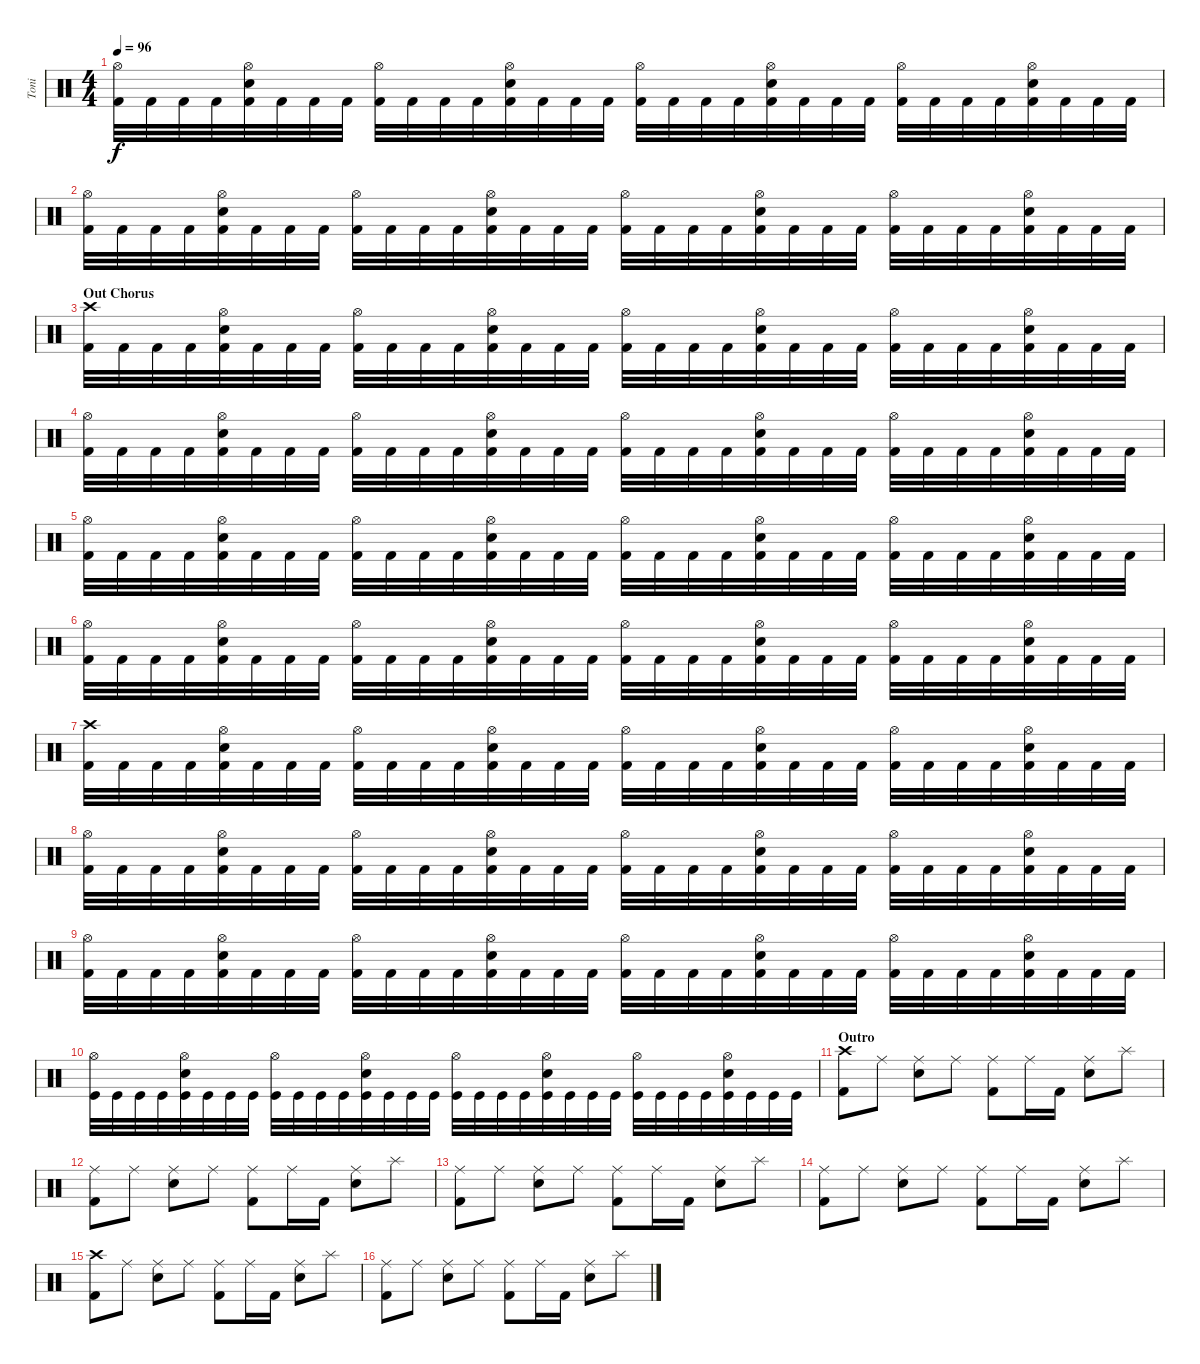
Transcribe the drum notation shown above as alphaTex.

\track ("Toni" "Toni") {instrument percussion}
\staff {score}
\articulation defaults
\ts (4 4)
\tempo 96
\clef neutral
\ks c
("Hi-Hat (open)" "Kick (hit) 2").32{dy f} "Kick (hit) 2".32 "Kick (hit) 2".32 "Kick (hit) 2".32 ("Hi-Hat (open)" "Electric Snare (hit)" "Kick (hit) 2").32 "Kick (hit) 2".32 "Kick (hit) 2".32 "Kick (hit) 2".32 ("Hi-Hat (open)" "Kick (hit) 2").32 "Kick (hit) 2".32 "Kick (hit) 2".32 "Kick (hit) 2".32 ("Hi-Hat (open)" "Electric Snare (hit)" "Kick (hit) 2").32 "Kick (hit) 2".32 "Kick (hit) 2".32 "Kick (hit) 2".32 ("Hi-Hat (open)" "Kick (hit) 2").32 "Kick (hit) 2".32 "Kick (hit) 2".32 "Kick (hit) 2".32 ("Hi-Hat (open)" "Electric Snare (hit)" "Kick (hit) 2").32 "Kick (hit) 2".32 "Kick (hit) 2".32 "Kick (hit) 2".32 ("Hi-Hat (open)" "Kick (hit) 2").32 "Kick (hit) 2".32 "Kick (hit) 2".32 "Kick (hit) 2".32 ("Hi-Hat (open)" "Electric Snare (hit)" "Kick (hit) 2").32 "Kick (hit) 2".32 "Kick (hit) 2".32 "Kick (hit) 2".32 |
("Hi-Hat (open)" "Kick (hit) 2").32 "Kick (hit) 2".32 "Kick (hit) 2".32 "Kick (hit) 2".32 ("Hi-Hat (open)" "Electric Snare (hit)" "Kick (hit) 2").32 "Kick (hit) 2".32 "Kick (hit) 2".32 "Kick (hit) 2".32 ("Hi-Hat (open)" "Kick (hit) 2").32 "Kick (hit) 2".32 "Kick (hit) 2".32 "Kick (hit) 2".32 ("Hi-Hat (open)" "Electric Snare (hit)" "Kick (hit) 2").32 "Kick (hit) 2".32 "Kick (hit) 2".32 "Kick (hit) 2".32 ("Hi-Hat (open)" "Kick (hit) 2").32 "Kick (hit) 2".32 "Kick (hit) 2".32 "Kick (hit) 2".32 ("Hi-Hat (open)" "Electric Snare (hit)" "Kick (hit) 2").32 "Kick (hit) 2".32 "Kick (hit) 2".32 "Kick (hit) 2".32 ("Hi-Hat (open)" "Kick (hit) 2").32 "Kick (hit) 2".32 "Kick (hit) 2".32 "Kick (hit) 2".32 ("Hi-Hat (open)" "Electric Snare (hit)" "Kick (hit) 2").32 "Kick (hit) 2".32 "Kick (hit) 2".32 "Kick (hit) 2".32 |
\section ("" "Out Chorus")
("Crash high (hit)" "Kick (hit) 2").32 "Kick (hit) 2".32 "Kick (hit) 2".32 "Kick (hit) 2".32 ("Hi-Hat (open)" "Electric Snare (hit)" "Kick (hit) 2").32 "Kick (hit) 2".32 "Kick (hit) 2".32 "Kick (hit) 2".32 ("Hi-Hat (open)" "Kick (hit) 2").32 "Kick (hit) 2".32 "Kick (hit) 2".32 "Kick (hit) 2".32 ("Hi-Hat (open)" "Electric Snare (hit)" "Kick (hit) 2").32 "Kick (hit) 2".32 "Kick (hit) 2".32 "Kick (hit) 2".32 ("Hi-Hat (open)" "Kick (hit) 2").32 "Kick (hit) 2".32 "Kick (hit) 2".32 "Kick (hit) 2".32 ("Hi-Hat (open)" "Electric Snare (hit)" "Kick (hit) 2").32 "Kick (hit) 2".32 "Kick (hit) 2".32 "Kick (hit) 2".32 ("Hi-Hat (open)" "Kick (hit) 2").32 "Kick (hit) 2".32 "Kick (hit) 2".32 "Kick (hit) 2".32 ("Hi-Hat (open)" "Electric Snare (hit)" "Kick (hit) 2").32 "Kick (hit) 2".32 "Kick (hit) 2".32 "Kick (hit) 2".32 |
("Hi-Hat (open)" "Kick (hit) 2").32 "Kick (hit) 2".32 "Kick (hit) 2".32 "Kick (hit) 2".32 ("Hi-Hat (open)" "Electric Snare (hit)" "Kick (hit) 2").32 "Kick (hit) 2".32 "Kick (hit) 2".32 "Kick (hit) 2".32 ("Hi-Hat (open)" "Kick (hit) 2").32 "Kick (hit) 2".32 "Kick (hit) 2".32 "Kick (hit) 2".32 ("Hi-Hat (open)" "Electric Snare (hit)" "Kick (hit) 2").32 "Kick (hit) 2".32 "Kick (hit) 2".32 "Kick (hit) 2".32 ("Hi-Hat (open)" "Kick (hit) 2").32 "Kick (hit) 2".32 "Kick (hit) 2".32 "Kick (hit) 2".32 ("Hi-Hat (open)" "Electric Snare (hit)" "Kick (hit) 2").32 "Kick (hit) 2".32 "Kick (hit) 2".32 "Kick (hit) 2".32 ("Hi-Hat (open)" "Kick (hit) 2").32 "Kick (hit) 2".32 "Kick (hit) 2".32 "Kick (hit) 2".32 ("Hi-Hat (open)" "Electric Snare (hit)" "Kick (hit) 2").32 "Kick (hit) 2".32 "Kick (hit) 2".32 "Kick (hit) 2".32 |
("Hi-Hat (open)" "Kick (hit) 2").32 "Kick (hit) 2".32 "Kick (hit) 2".32 "Kick (hit) 2".32 ("Hi-Hat (open)" "Electric Snare (hit)" "Kick (hit) 2").32 "Kick (hit) 2".32 "Kick (hit) 2".32 "Kick (hit) 2".32 ("Hi-Hat (open)" "Kick (hit) 2").32 "Kick (hit) 2".32 "Kick (hit) 2".32 "Kick (hit) 2".32 ("Hi-Hat (open)" "Electric Snare (hit)" "Kick (hit) 2").32 "Kick (hit) 2".32 "Kick (hit) 2".32 "Kick (hit) 2".32 ("Hi-Hat (open)" "Kick (hit) 2").32 "Kick (hit) 2".32 "Kick (hit) 2".32 "Kick (hit) 2".32 ("Hi-Hat (open)" "Electric Snare (hit)" "Kick (hit) 2").32 "Kick (hit) 2".32 "Kick (hit) 2".32 "Kick (hit) 2".32 ("Hi-Hat (open)" "Kick (hit) 2").32 "Kick (hit) 2".32 "Kick (hit) 2".32 "Kick (hit) 2".32 ("Hi-Hat (open)" "Electric Snare (hit)" "Kick (hit) 2").32 "Kick (hit) 2".32 "Kick (hit) 2".32 "Kick (hit) 2".32 |
("Hi-Hat (open)" "Kick (hit) 2").32 "Kick (hit) 2".32 "Kick (hit) 2".32 "Kick (hit) 2".32 ("Hi-Hat (open)" "Electric Snare (hit)" "Kick (hit) 2").32 "Kick (hit) 2".32 "Kick (hit) 2".32 "Kick (hit) 2".32 ("Hi-Hat (open)" "Kick (hit) 2").32 "Kick (hit) 2".32 "Kick (hit) 2".32 "Kick (hit) 2".32 ("Hi-Hat (open)" "Electric Snare (hit)" "Kick (hit) 2").32 "Kick (hit) 2".32 "Kick (hit) 2".32 "Kick (hit) 2".32 ("Hi-Hat (open)" "Kick (hit) 2").32 "Kick (hit) 2".32 "Kick (hit) 2".32 "Kick (hit) 2".32 ("Hi-Hat (open)" "Electric Snare (hit)" "Kick (hit) 2").32 "Kick (hit) 2".32 "Kick (hit) 2".32 "Kick (hit) 2".32 ("Hi-Hat (open)" "Kick (hit) 2").32 "Kick (hit) 2".32 "Kick (hit) 2".32 "Kick (hit) 2".32 ("Hi-Hat (open)" "Electric Snare (hit)" "Kick (hit) 2").32 "Kick (hit) 2".32 "Kick (hit) 2".32 "Kick (hit) 2".32 |
("Crash high (hit)" "Kick (hit) 2").32 "Kick (hit) 2".32 "Kick (hit) 2".32 "Kick (hit) 2".32 ("Hi-Hat (open)" "Electric Snare (hit)" "Kick (hit) 2").32 "Kick (hit) 2".32 "Kick (hit) 2".32 "Kick (hit) 2".32 ("Hi-Hat (open)" "Kick (hit) 2").32 "Kick (hit) 2".32 "Kick (hit) 2".32 "Kick (hit) 2".32 ("Hi-Hat (open)" "Electric Snare (hit)" "Kick (hit) 2").32 "Kick (hit) 2".32 "Kick (hit) 2".32 "Kick (hit) 2".32 ("Hi-Hat (open)" "Kick (hit) 2").32 "Kick (hit) 2".32 "Kick (hit) 2".32 "Kick (hit) 2".32 ("Hi-Hat (open)" "Electric Snare (hit)" "Kick (hit) 2").32 "Kick (hit) 2".32 "Kick (hit) 2".32 "Kick (hit) 2".32 ("Hi-Hat (open)" "Kick (hit) 2").32 "Kick (hit) 2".32 "Kick (hit) 2".32 "Kick (hit) 2".32 ("Hi-Hat (open)" "Electric Snare (hit)" "Kick (hit) 2").32 "Kick (hit) 2".32 "Kick (hit) 2".32 "Kick (hit) 2".32 |
("Hi-Hat (open)" "Kick (hit) 2").32 "Kick (hit) 2".32 "Kick (hit) 2".32 "Kick (hit) 2".32 ("Hi-Hat (open)" "Electric Snare (hit)" "Kick (hit) 2").32 "Kick (hit) 2".32 "Kick (hit) 2".32 "Kick (hit) 2".32 ("Hi-Hat (open)" "Kick (hit) 2").32 "Kick (hit) 2".32 "Kick (hit) 2".32 "Kick (hit) 2".32 ("Hi-Hat (open)" "Electric Snare (hit)" "Kick (hit) 2").32 "Kick (hit) 2".32 "Kick (hit) 2".32 "Kick (hit) 2".32 ("Hi-Hat (open)" "Kick (hit) 2").32 "Kick (hit) 2".32 "Kick (hit) 2".32 "Kick (hit) 2".32 ("Hi-Hat (open)" "Electric Snare (hit)" "Kick (hit) 2").32 "Kick (hit) 2".32 "Kick (hit) 2".32 "Kick (hit) 2".32 ("Hi-Hat (open)" "Kick (hit) 2").32 "Kick (hit) 2".32 "Kick (hit) 2".32 "Kick (hit) 2".32 ("Hi-Hat (open)" "Electric Snare (hit)" "Kick (hit) 2").32 "Kick (hit) 2".32 "Kick (hit) 2".32 "Kick (hit) 2".32 |
("Hi-Hat (open)" "Kick (hit) 2").32 "Kick (hit) 2".32 "Kick (hit) 2".32 "Kick (hit) 2".32 ("Hi-Hat (open)" "Electric Snare (hit)" "Kick (hit) 2").32 "Kick (hit) 2".32 "Kick (hit) 2".32 "Kick (hit) 2".32 ("Hi-Hat (open)" "Kick (hit) 2").32 "Kick (hit) 2".32 "Kick (hit) 2".32 "Kick (hit) 2".32 ("Hi-Hat (open)" "Electric Snare (hit)" "Kick (hit) 2").32 "Kick (hit) 2".32 "Kick (hit) 2".32 "Kick (hit) 2".32 ("Hi-Hat (open)" "Kick (hit) 2").32 "Kick (hit) 2".32 "Kick (hit) 2".32 "Kick (hit) 2".32 ("Hi-Hat (open)" "Electric Snare (hit)" "Kick (hit) 2").32 "Kick (hit) 2".32 "Kick (hit) 2".32 "Kick (hit) 2".32 ("Hi-Hat (open)" "Kick (hit) 2").32 "Kick (hit) 2".32 "Kick (hit) 2".32 "Kick (hit) 2".32 ("Hi-Hat (open)" "Electric Snare (hit)" "Kick (hit) 2").32 "Kick (hit) 2".32 "Kick (hit) 2".32 "Kick (hit) 2".32 |
("Hi-Hat (open)" "Kick (hit)").32 "Kick (hit)".32 "Kick (hit)".32 "Kick (hit)".32 ("Hi-Hat (open)" "Electric Snare (hit)" "Kick (hit)").32 "Kick (hit)".32 "Kick (hit)".32 "Kick (hit)".32 ("Hi-Hat (open)" "Kick (hit)").32 "Kick (hit)".32 "Kick (hit)".32 "Kick (hit)".32 ("Hi-Hat (open)" "Electric Snare (hit)" "Kick (hit)").32 "Kick (hit)".32 "Kick (hit)".32 "Kick (hit)".32 ("Hi-Hat (open)" "Kick (hit)").32 "Kick (hit)".32 "Kick (hit)".32 "Kick (hit)".32 ("Hi-Hat (open)" "Electric Snare (hit)" "Kick (hit)").32 "Kick (hit)".32 "Kick (hit)".32 "Kick (hit)".32 ("Hi-Hat (open)" "Kick (hit)").32 "Kick (hit)".32 "Kick (hit)".32 "Kick (hit)".32 ("Hi-Hat (open)" "Electric Snare (hit)" "Kick (hit)").32 "Kick (hit)".32 "Kick (hit)".32 "Kick (hit)".32 |
\section ("" "Outro")
("Crash high (hit)" "Kick (hit) 2").8 "Ride (middle)".8 ("Ride (middle)" "Electric Snare (hit)").8 "Ride (middle)".8 ("Ride (middle)" "Kick (hit) 2").8 "Ride (middle)".16 "Kick (hit) 2".16 ("Ride (middle)" "Electric Snare (hit)").8 "Splash (hit)".8 |
("Ride (middle)" "Kick (hit) 2").8 "Ride (middle)".8 ("Ride (middle)" "Electric Snare (hit)").8 "Ride (middle)".8 ("Ride (middle)" "Kick (hit) 2").8 "Ride (middle)".16 "Kick (hit) 2".16 ("Ride (middle)" "Electric Snare (hit)").8 "Splash (hit)".8 |
("Ride (middle)" "Kick (hit) 2").8 "Ride (middle)".8 ("Ride (middle)" "Electric Snare (hit)").8 "Ride (middle)".8 ("Ride (middle)" "Kick (hit) 2").8 "Ride (middle)".16 "Kick (hit) 2".16 ("Ride (middle)" "Electric Snare (hit)").8 "Splash (hit)".8 |
("Ride (middle)" "Kick (hit) 2").8 "Ride (middle)".8 ("Ride (middle)" "Electric Snare (hit)").8 "Ride (middle)".8 ("Ride (middle)" "Kick (hit) 2").8 "Ride (middle)".16 "Kick (hit) 2".16 ("Ride (middle)" "Electric Snare (hit)").8 "Splash (hit)".8 |
("Crash high (hit)" "Kick (hit) 2").8 "Ride (middle)".8 ("Ride (middle)" "Electric Snare (hit)").8 "Ride (middle)".8 ("Ride (middle)" "Kick (hit) 2").8 "Ride (middle)".16 "Kick (hit) 2".16 ("Ride (middle)" "Electric Snare (hit)").8 "Splash (hit)".8 |
("Ride (middle)" "Kick (hit) 2").8 "Ride (middle)".8 ("Ride (middle)" "Electric Snare (hit)").8 "Ride (middle)".8 ("Ride (middle)" "Kick (hit) 2").8 "Ride (middle)".16 "Kick (hit) 2".16 ("Ride (middle)" "Electric Snare (hit)").8 "Splash (hit)".8
